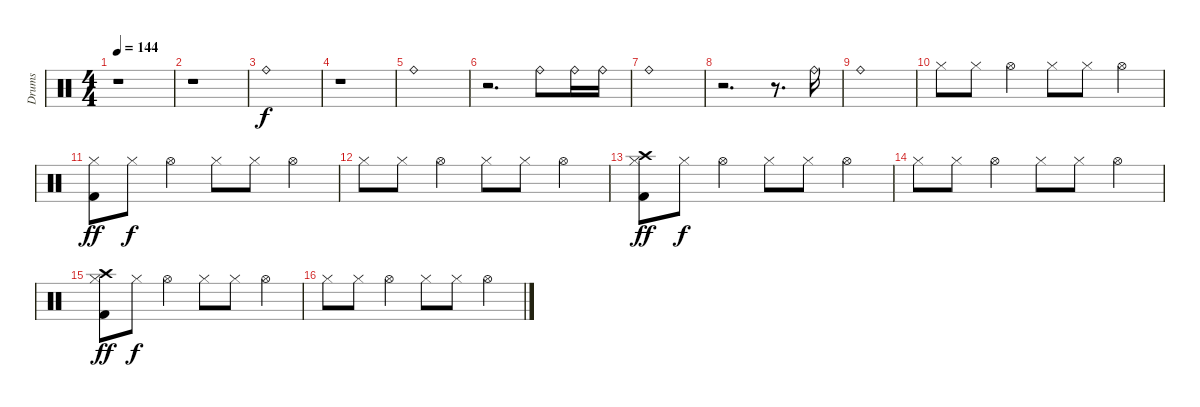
\track ("Drums" "Drums") {instrument percussion}
\staff {score}
\articulation defaults
\ts (4 4)
\tempo 144
\clef neutral
\ks c
r.1{dy f} |
r.1 |
"Ride (bell)".1 |
r.1 |
"Ride (bell)".1 |
r.2{d} "Ride (bell)".8 "Ride (bell)".16 "Ride (bell)".16 |
"Ride (bell)".1 |
r.2{d} r.8{d} "Ride (bell)".16 |
"Ride (bell)".1 |
"Hi-Hat (closed)".8 "Hi-Hat (closed)".8 "Hi-Hat (open)".4 "Hi-Hat (closed)".8 "Hi-Hat (closed)".8 "Hi-Hat (open)".4 |
("Hi-Hat (closed)" "Kick (hit) 2").8{dy ff} "Hi-Hat (closed)".8{dy f} "Hi-Hat (open)".4 "Hi-Hat (closed)".8 "Hi-Hat (closed)".8 "Hi-Hat (open)".4 |
"Hi-Hat (closed)".8 "Hi-Hat (closed)".8 "Hi-Hat (open)".4 "Hi-Hat (closed)".8 "Hi-Hat (closed)".8 "Hi-Hat (open)".4 |
("Crash high (hit)" "Hi-Hat (closed)" "Kick (hit) 2").8{dy ff} "Hi-Hat (closed)".8{dy f} "Hi-Hat (open)".4 "Hi-Hat (closed)".8 "Hi-Hat (closed)".8 "Hi-Hat (open)".4 |
"Hi-Hat (closed)".8 "Hi-Hat (closed)".8 "Hi-Hat (open)".4 "Hi-Hat (closed)".8 "Hi-Hat (closed)".8 "Hi-Hat (open)".4 |
("Crash high (hit)" "Hi-Hat (closed)" "Kick (hit) 2").8{dy ff} "Hi-Hat (closed)".8{dy f} "Hi-Hat (open)".4 "Hi-Hat (closed)".8 "Hi-Hat (closed)".8 "Hi-Hat (open)".4 |
"Hi-Hat (closed)".8 "Hi-Hat (closed)".8 "Hi-Hat (open)".4 "Hi-Hat (closed)".8 "Hi-Hat (closed)".8 "Hi-Hat (open)".4
